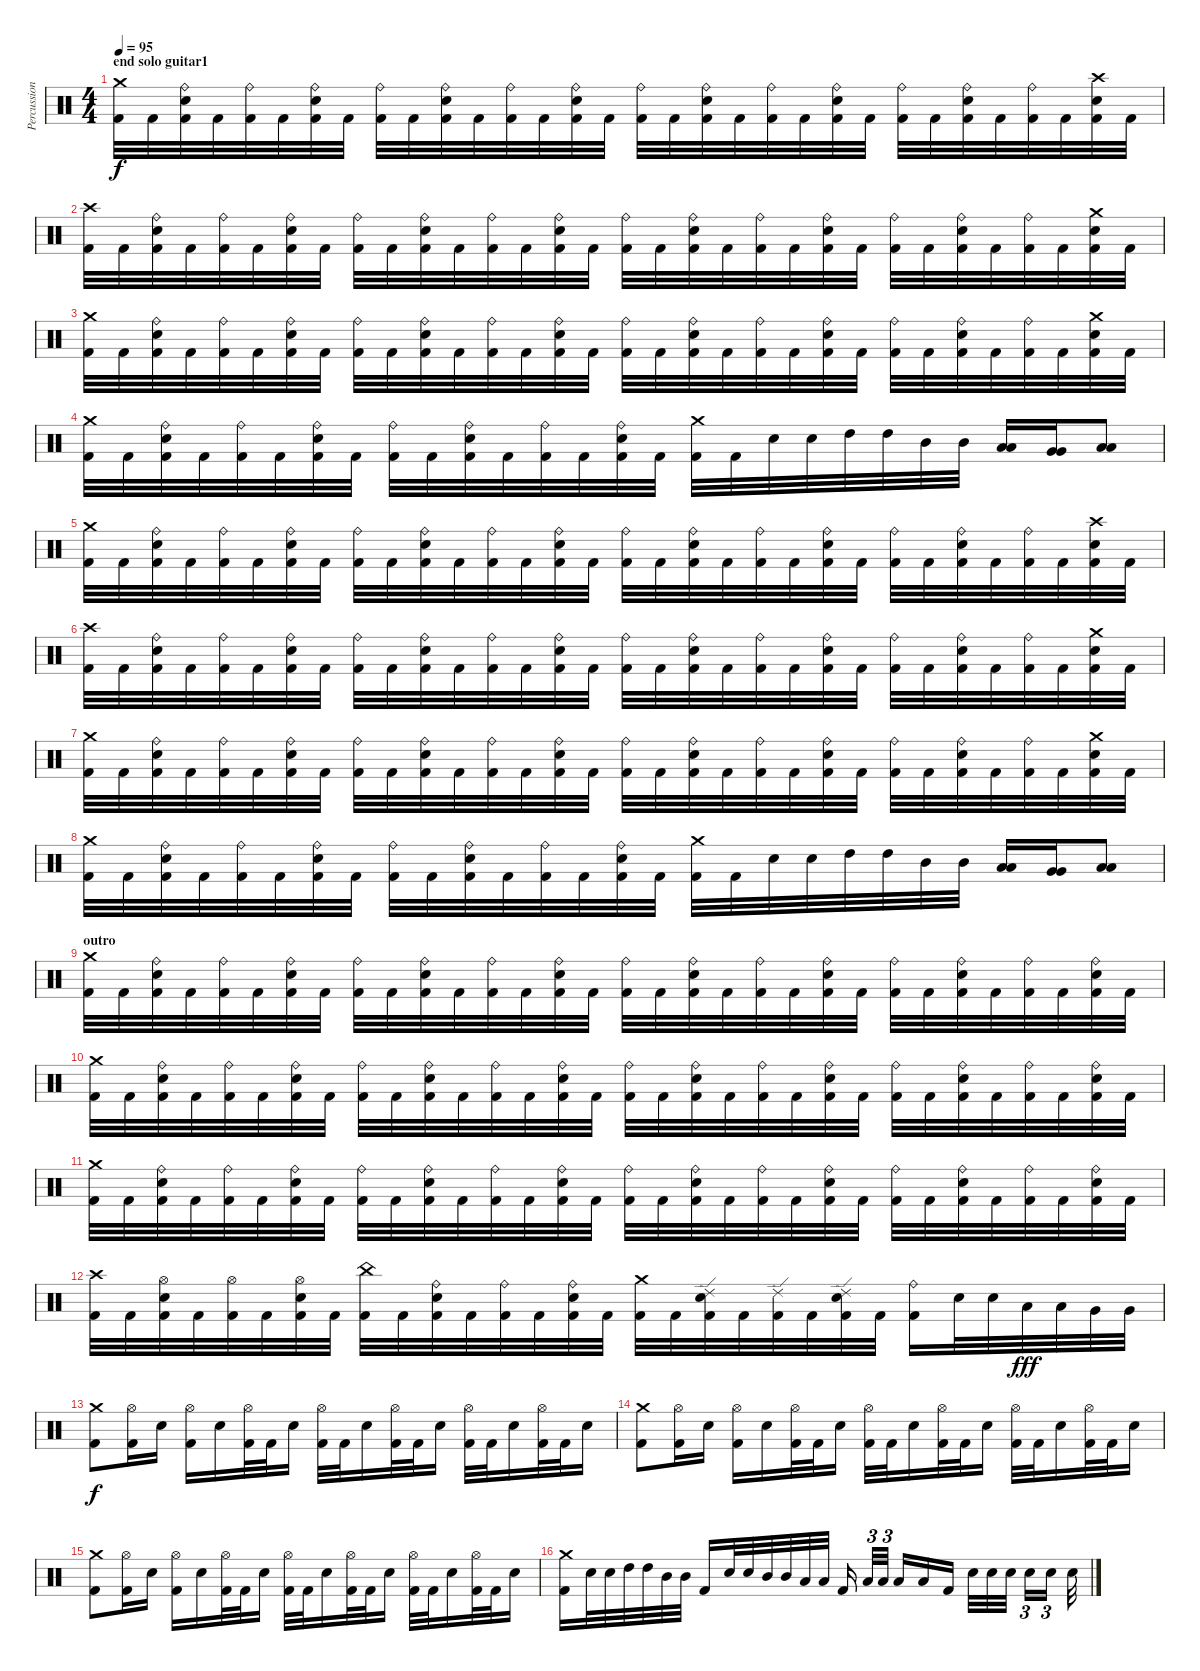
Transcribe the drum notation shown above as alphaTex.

\track ("Percussions" "Percussion") {instrument percussion}
\staff {score}
\articulation defaults
\ts (4 4)
\section ("" "end solo guitar1")
\tempo 95
\clef neutral
\ks c
("Crash medium (hit)" "Kick (hit) 2").32{dy f} "Kick (hit) 2".32 ("Ride (bell)" "Electric Snare (hit)" "Kick (hit) 2").32 "Kick (hit) 2".32 ("Ride (bell)" "Kick (hit) 2").32 "Kick (hit) 2".32 ("Ride (bell)" "Electric Snare (hit)" "Kick (hit) 2").32 "Kick (hit) 2".32 ("Ride (bell)" "Kick (hit) 2").32 "Kick (hit) 2".32 ("Ride (bell)" "Electric Snare (hit)" "Kick (hit) 2").32 "Kick (hit) 2".32 ("Ride (bell)" "Kick (hit) 2").32 "Kick (hit) 2".32 ("Ride (bell)" "Electric Snare (hit)" "Kick (hit) 2").32 "Kick (hit) 2".32 ("Ride (bell)" "Kick (hit) 2").32 "Kick (hit) 2".32 ("Ride (bell)" "Electric Snare (hit)" "Kick (hit) 2").32 "Kick (hit) 2".32 ("Ride (bell)" "Kick (hit) 2").32 "Kick (hit) 2".32 ("Ride (bell)" "Electric Snare (hit)" "Kick (hit) 2").32 "Kick (hit) 2".32 ("Ride (bell)" "Kick (hit) 2").32 "Kick (hit) 2".32 ("Ride (bell)" "Electric Snare (hit)" "Kick (hit) 2").32 "Kick (hit) 2".32 ("Ride (bell)" "Kick (hit) 2").32 "Kick (hit) 2".32 ("Crash high (hit)" "Electric Snare (hit)" "Kick (hit) 2").32 "Kick (hit) 2".32 |
("Crash high (hit)" "Kick (hit) 2").32 "Kick (hit) 2".32 ("Ride (bell)" "Electric Snare (hit)" "Kick (hit) 2").32 "Kick (hit) 2".32 ("Ride (bell)" "Kick (hit) 2").32 "Kick (hit) 2".32 ("Ride (bell)" "Electric Snare (hit)" "Kick (hit) 2").32 "Kick (hit) 2".32 ("Ride (bell)" "Kick (hit) 2").32 "Kick (hit) 2".32 ("Ride (bell)" "Electric Snare (hit)" "Kick (hit) 2").32 "Kick (hit) 2".32 ("Ride (bell)" "Kick (hit) 2").32 "Kick (hit) 2".32 ("Ride (bell)" "Electric Snare (hit)" "Kick (hit) 2").32 "Kick (hit) 2".32 ("Ride (bell)" "Kick (hit) 2").32 "Kick (hit) 2".32 ("Ride (bell)" "Electric Snare (hit)" "Kick (hit) 2").32 "Kick (hit) 2".32 ("Ride (bell)" "Kick (hit) 2").32 "Kick (hit) 2".32 ("Ride (bell)" "Electric Snare (hit)" "Kick (hit) 2").32 "Kick (hit) 2".32 ("Ride (bell)" "Kick (hit) 2").32 "Kick (hit) 2".32 ("Ride (bell)" "Electric Snare (hit)" "Kick (hit) 2").32 "Kick (hit) 2".32 ("Ride (bell)" "Kick (hit) 2").32 "Kick (hit) 2".32 ("Crash medium (hit)" "Electric Snare (hit)" "Kick (hit) 2").32 "Kick (hit) 2".32 |
("Crash medium (hit)" "Kick (hit) 2").32 "Kick (hit) 2".32 ("Ride (bell)" "Electric Snare (hit)" "Kick (hit) 2").32 "Kick (hit) 2".32 ("Ride (bell)" "Kick (hit) 2").32 "Kick (hit) 2".32 ("Ride (bell)" "Electric Snare (hit)" "Kick (hit) 2").32 "Kick (hit) 2".32 ("Ride (bell)" "Kick (hit) 2").32 "Kick (hit) 2".32 ("Ride (bell)" "Electric Snare (hit)" "Kick (hit) 2").32 "Kick (hit) 2".32 ("Ride (bell)" "Kick (hit) 2").32 "Kick (hit) 2".32 ("Ride (bell)" "Electric Snare (hit)" "Kick (hit) 2").32 "Kick (hit) 2".32 ("Ride (bell)" "Kick (hit) 2").32 "Kick (hit) 2".32 ("Ride (bell)" "Electric Snare (hit)" "Kick (hit) 2").32 "Kick (hit) 2".32 ("Ride (bell)" "Kick (hit) 2").32 "Kick (hit) 2".32 ("Ride (bell)" "Electric Snare (hit)" "Kick (hit) 2").32 "Kick (hit) 2".32 ("Ride (bell)" "Kick (hit) 2").32 "Kick (hit) 2".32 ("Ride (bell)" "Electric Snare (hit)" "Kick (hit) 2").32 "Kick (hit) 2".32 ("Ride (bell)" "Kick (hit) 2").32 "Kick (hit) 2".32 ("Crash medium (hit)" "Electric Snare (hit)" "Kick (hit) 2").32 "Kick (hit) 2".32 |
("Crash medium (hit)" "Kick (hit) 2").32 "Kick (hit) 2".32 ("Ride (bell)" "Electric Snare (hit)" "Kick (hit) 2").32 "Kick (hit) 2".32 ("Ride (bell)" "Kick (hit) 2").32 "Kick (hit) 2".32 ("Ride (bell)" "Electric Snare (hit)" "Kick (hit) 2").32 "Kick (hit) 2".32 ("Ride (bell)" "Kick (hit) 2").32 "Kick (hit) 2".32 ("Ride (bell)" "Electric Snare (hit)" "Kick (hit) 2").32 "Kick (hit) 2".32 ("Ride (bell)" "Kick (hit) 2").32 "Kick (hit) 2".32 ("Ride (bell)" "Electric Snare (hit)" "Kick (hit) 2").32 "Kick (hit) 2".32 ("Crash medium (hit)" "Kick (hit) 2").32 "Kick (hit) 2".32 "Electric Snare (hit)".32 "Electric Snare (hit)".32 "High Tom (hit)".32 "High Tom (hit)".32 "Mid Tom (hit)".32 "Mid Tom (hit)".32 ("Low Tom (hit)" "Low Tom (hit)").16 ("Very Low Tom (hit)" "Very Low Tom (hit)").16 ("Low Tom (hit)" "Low Tom (hit)").8 |
("Crash medium (hit)" "Kick (hit) 2").32 "Kick (hit) 2".32 ("Ride (bell)" "Electric Snare (hit)" "Kick (hit) 2").32 "Kick (hit) 2".32 ("Ride (bell)" "Kick (hit) 2").32 "Kick (hit) 2".32 ("Ride (bell)" "Electric Snare (hit)" "Kick (hit) 2").32 "Kick (hit) 2".32 ("Ride (bell)" "Kick (hit) 2").32 "Kick (hit) 2".32 ("Ride (bell)" "Electric Snare (hit)" "Kick (hit) 2").32 "Kick (hit) 2".32 ("Ride (bell)" "Kick (hit) 2").32 "Kick (hit) 2".32 ("Ride (bell)" "Electric Snare (hit)" "Kick (hit) 2").32 "Kick (hit) 2".32 ("Ride (bell)" "Kick (hit) 2").32 "Kick (hit) 2".32 ("Ride (bell)" "Electric Snare (hit)" "Kick (hit) 2").32 "Kick (hit) 2".32 ("Ride (bell)" "Kick (hit) 2").32 "Kick (hit) 2".32 ("Ride (bell)" "Electric Snare (hit)" "Kick (hit) 2").32 "Kick (hit) 2".32 ("Ride (bell)" "Kick (hit) 2").32 "Kick (hit) 2".32 ("Ride (bell)" "Electric Snare (hit)" "Kick (hit) 2").32 "Kick (hit) 2".32 ("Ride (bell)" "Kick (hit) 2").32 "Kick (hit) 2".32 ("Crash high (hit)" "Electric Snare (hit)" "Kick (hit) 2").32 "Kick (hit) 2".32 |
("Crash high (hit)" "Kick (hit) 2").32 "Kick (hit) 2".32 ("Ride (bell)" "Electric Snare (hit)" "Kick (hit) 2").32 "Kick (hit) 2".32 ("Ride (bell)" "Kick (hit) 2").32 "Kick (hit) 2".32 ("Ride (bell)" "Electric Snare (hit)" "Kick (hit) 2").32 "Kick (hit) 2".32 ("Ride (bell)" "Kick (hit) 2").32 "Kick (hit) 2".32 ("Ride (bell)" "Electric Snare (hit)" "Kick (hit) 2").32 "Kick (hit) 2".32 ("Ride (bell)" "Kick (hit) 2").32 "Kick (hit) 2".32 ("Ride (bell)" "Electric Snare (hit)" "Kick (hit) 2").32 "Kick (hit) 2".32 ("Ride (bell)" "Kick (hit) 2").32 "Kick (hit) 2".32 ("Ride (bell)" "Electric Snare (hit)" "Kick (hit) 2").32 "Kick (hit) 2".32 ("Ride (bell)" "Kick (hit) 2").32 "Kick (hit) 2".32 ("Ride (bell)" "Electric Snare (hit)" "Kick (hit) 2").32 "Kick (hit) 2".32 ("Ride (bell)" "Kick (hit) 2").32 "Kick (hit) 2".32 ("Ride (bell)" "Electric Snare (hit)" "Kick (hit) 2").32 "Kick (hit) 2".32 ("Ride (bell)" "Kick (hit) 2").32 "Kick (hit) 2".32 ("Crash medium (hit)" "Electric Snare (hit)" "Kick (hit) 2").32 "Kick (hit) 2".32 |
("Crash medium (hit)" "Kick (hit) 2").32 "Kick (hit) 2".32 ("Ride (bell)" "Electric Snare (hit)" "Kick (hit) 2").32 "Kick (hit) 2".32 ("Ride (bell)" "Kick (hit) 2").32 "Kick (hit) 2".32 ("Ride (bell)" "Electric Snare (hit)" "Kick (hit) 2").32 "Kick (hit) 2".32 ("Ride (bell)" "Kick (hit) 2").32 "Kick (hit) 2".32 ("Ride (bell)" "Electric Snare (hit)" "Kick (hit) 2").32 "Kick (hit) 2".32 ("Ride (bell)" "Kick (hit) 2").32 "Kick (hit) 2".32 ("Ride (bell)" "Electric Snare (hit)" "Kick (hit) 2").32 "Kick (hit) 2".32 ("Ride (bell)" "Kick (hit) 2").32 "Kick (hit) 2".32 ("Ride (bell)" "Electric Snare (hit)" "Kick (hit) 2").32 "Kick (hit) 2".32 ("Ride (bell)" "Kick (hit) 2").32 "Kick (hit) 2".32 ("Ride (bell)" "Electric Snare (hit)" "Kick (hit) 2").32 "Kick (hit) 2".32 ("Ride (bell)" "Kick (hit) 2").32 "Kick (hit) 2".32 ("Ride (bell)" "Electric Snare (hit)" "Kick (hit) 2").32 "Kick (hit) 2".32 ("Ride (bell)" "Kick (hit) 2").32 "Kick (hit) 2".32 ("Crash medium (hit)" "Electric Snare (hit)" "Kick (hit) 2").32 "Kick (hit) 2".32 |
("Crash medium (hit)" "Kick (hit) 2").32 "Kick (hit) 2".32 ("Ride (bell)" "Electric Snare (hit)" "Kick (hit) 2").32 "Kick (hit) 2".32 ("Ride (bell)" "Kick (hit) 2").32 "Kick (hit) 2".32 ("Ride (bell)" "Electric Snare (hit)" "Kick (hit) 2").32 "Kick (hit) 2".32 ("Ride (bell)" "Kick (hit) 2").32 "Kick (hit) 2".32 ("Ride (bell)" "Electric Snare (hit)" "Kick (hit) 2").32 "Kick (hit) 2".32 ("Ride (bell)" "Kick (hit) 2").32 "Kick (hit) 2".32 ("Ride (bell)" "Electric Snare (hit)" "Kick (hit) 2").32 "Kick (hit) 2".32 ("Crash medium (hit)" "Kick (hit) 2").32 "Kick (hit) 2".32 "Electric Snare (hit)".32 "Electric Snare (hit)".32 "High Tom (hit)".32 "High Tom (hit)".32 "Mid Tom (hit)".32 "Mid Tom (hit)".32 ("Low Tom (hit)" "Low Tom (hit)").16 ("Very Low Tom (hit)" "Very Low Tom (hit)").16 ("Low Tom (hit)" "Low Tom (hit)").8 |
\section ("" "outro")
("Crash medium (hit)" "Kick (hit) 2").32 "Kick (hit) 2".32 ("Ride (bell)" "Electric Snare (hit)" "Kick (hit) 2").32 "Kick (hit) 2".32 ("Ride (bell)" "Kick (hit) 2").32 "Kick (hit) 2".32 ("Ride (bell)" "Electric Snare (hit)" "Kick (hit) 2").32 "Kick (hit) 2".32 ("Ride (bell)" "Kick (hit) 2").32 "Kick (hit) 2".32 ("Ride (bell)" "Electric Snare (hit)" "Kick (hit) 2").32 "Kick (hit) 2".32 ("Ride (bell)" "Kick (hit) 2").32 "Kick (hit) 2".32 ("Ride (bell)" "Electric Snare (hit)" "Kick (hit) 2").32 "Kick (hit) 2".32 ("Ride (bell)" "Kick (hit) 2").32 "Kick (hit) 2".32 ("Ride (bell)" "Electric Snare (hit)" "Kick (hit) 2").32 "Kick (hit) 2".32 ("Ride (bell)" "Kick (hit) 2").32 "Kick (hit) 2".32 ("Ride (bell)" "Electric Snare (hit)" "Kick (hit) 2").32 "Kick (hit) 2".32 ("Ride (bell)" "Kick (hit) 2").32 "Kick (hit) 2".32 ("Ride (bell)" "Electric Snare (hit)" "Kick (hit) 2").32 "Kick (hit) 2".32 ("Ride (bell)" "Kick (hit) 2").32 "Kick (hit) 2".32 ("Ride (bell)" "Electric Snare (hit)" "Kick (hit) 2").32 "Kick (hit) 2".32 |
("Crash medium (hit)" "Kick (hit) 2").32 "Kick (hit) 2".32 ("Ride (bell)" "Electric Snare (hit)" "Kick (hit) 2").32 "Kick (hit) 2".32 ("Ride (bell)" "Kick (hit) 2").32 "Kick (hit) 2".32 ("Ride (bell)" "Electric Snare (hit)" "Kick (hit) 2").32 "Kick (hit) 2".32 ("Ride (bell)" "Kick (hit) 2").32 "Kick (hit) 2".32 ("Ride (bell)" "Electric Snare (hit)" "Kick (hit) 2").32 "Kick (hit) 2".32 ("Ride (bell)" "Kick (hit) 2").32 "Kick (hit) 2".32 ("Ride (bell)" "Electric Snare (hit)" "Kick (hit) 2").32 "Kick (hit) 2".32 ("Ride (bell)" "Kick (hit) 2").32 "Kick (hit) 2".32 ("Ride (bell)" "Electric Snare (hit)" "Kick (hit) 2").32 "Kick (hit) 2".32 ("Ride (bell)" "Kick (hit) 2").32 "Kick (hit) 2".32 ("Ride (bell)" "Electric Snare (hit)" "Kick (hit) 2").32 "Kick (hit) 2".32 ("Ride (bell)" "Kick (hit) 2").32 "Kick (hit) 2".32 ("Ride (bell)" "Electric Snare (hit)" "Kick (hit) 2").32 "Kick (hit) 2".32 ("Ride (bell)" "Kick (hit) 2").32 "Kick (hit) 2".32 ("Ride (bell)" "Electric Snare (hit)" "Kick (hit) 2").32 "Kick (hit) 2".32 |
("Crash medium (hit)" "Kick (hit) 2").32 "Kick (hit) 2".32 ("Ride (bell)" "Electric Snare (hit)" "Kick (hit) 2").32 "Kick (hit) 2".32 ("Ride (bell)" "Kick (hit) 2").32 "Kick (hit) 2".32 ("Ride (bell)" "Electric Snare (hit)" "Kick (hit) 2").32 "Kick (hit) 2".32 ("Ride (bell)" "Kick (hit) 2").32 "Kick (hit) 2".32 ("Ride (bell)" "Electric Snare (hit)" "Kick (hit) 2").32 "Kick (hit) 2".32 ("Ride (bell)" "Kick (hit) 2").32 "Kick (hit) 2".32 ("Ride (bell)" "Electric Snare (hit)" "Kick (hit) 2").32 "Kick (hit) 2".32 ("Ride (bell)" "Kick (hit) 2").32 "Kick (hit) 2".32 ("Ride (bell)" "Electric Snare (hit)" "Kick (hit) 2").32 "Kick (hit) 2".32 ("Ride (bell)" "Kick (hit) 2").32 "Kick (hit) 2".32 ("Ride (bell)" "Electric Snare (hit)" "Kick (hit) 2").32 "Kick (hit) 2".32 ("Ride (bell)" "Kick (hit) 2").32 "Kick (hit) 2".32 ("Ride (bell)" "Electric Snare (hit)" "Kick (hit) 2").32 "Kick (hit) 2".32 ("Ride (bell)" "Kick (hit) 2").32 "Kick (hit) 2".32 ("Ride (bell)" "Electric Snare (hit)" "Kick (hit) 2").32 "Kick (hit) 2".32 |
("Crash high (hit)" "Kick (hit) 2").32 "Kick (hit) 2".32 ("Hi-Hat (open)" "Electric Snare (hit)" "Kick (hit) 2").32 "Kick (hit) 2".32 ("Hi-Hat (open)" "Kick (hit) 2").32 "Kick (hit) 2".32 ("Hi-Hat (open)" "Electric Snare (hit)" "Kick (hit) 2").32 "Kick (hit) 2".32 ("China (hit)" "Kick (hit) 2").32 "Kick (hit) 2".32 ("Ride (bell)" "Electric Snare (hit)" "Kick (hit) 2").32 "Kick (hit) 2".32 ("Ride (bell)" "Kick (hit) 2").32 "Kick (hit) 2".32 ("Ride (bell)" "Electric Snare (hit)" "Kick (hit) 2").32 "Kick (hit) 2".32 ("Crash medium (hit)" "Kick (hit) 2").32 "Kick (hit) 2".32 ("Ride (edge) 2" "Electric Snare (hit)" "Kick (hit) 2").32 "Kick (hit) 2".32 ("Ride (edge) 2" "Kick (hit) 2").32 "Kick (hit) 2".32 ("Ride (edge) 2" "Electric Snare (hit)" "Kick (hit) 2").32 "Kick (hit) 2".32 ("Ride (bell)" "Kick (hit) 2").16 "Electric Snare (hit)".32 "Electric Snare (hit)".32 "Low Tom (hit)".32{dy fff} "Low Tom (hit)".32 "Very Low Tom (hit)".32 "Very Low Tom (hit)".32 |
("Crash medium (hit)" "Kick (hit) 2").8{dy f} ("Hi-Hat (open)" "Kick (hit) 2").16 "Electric Snare (hit)".16 ("Hi-Hat (open)" "Kick (hit) 2").16 "Electric Snare (hit)".16 ("Hi-Hat (open)" "Kick (hit) 2").32 "Kick (hit) 2".32 "Electric Snare (hit)".16 ("Hi-Hat (open)" "Kick (hit) 2").32 "Kick (hit) 2".32 "Electric Snare (hit)".16 ("Hi-Hat (open)" "Kick (hit) 2").32 "Kick (hit) 2".32 "Electric Snare (hit)".16 ("Hi-Hat (open)" "Kick (hit) 2").32 "Kick (hit) 2".32 "Electric Snare (hit)".16 ("Hi-Hat (open)" "Kick (hit) 2").32 "Kick (hit) 2".32 "Electric Snare (hit)".16 |
("Crash medium (hit)" "Kick (hit) 2").8 ("Hi-Hat (open)" "Kick (hit) 2").16 "Electric Snare (hit)".16 ("Hi-Hat (open)" "Kick (hit) 2").16 "Electric Snare (hit)".16 ("Hi-Hat (open)" "Kick (hit) 2").32 "Kick (hit) 2".32 "Electric Snare (hit)".16 ("Hi-Hat (open)" "Kick (hit) 2").32 "Kick (hit) 2".32 "Electric Snare (hit)".16 ("Hi-Hat (open)" "Kick (hit) 2").32 "Kick (hit) 2".32 "Electric Snare (hit)".16 ("Hi-Hat (open)" "Kick (hit) 2").32 "Kick (hit) 2".32 "Electric Snare (hit)".16 ("Hi-Hat (open)" "Kick (hit) 2").32 "Kick (hit) 2".32 "Electric Snare (hit)".16 |
("Crash medium (hit)" "Kick (hit) 2").8 ("Hi-Hat (open)" "Kick (hit) 2").16 "Electric Snare (hit)".16 ("Hi-Hat (open)" "Kick (hit) 2").16 "Electric Snare (hit)".16 ("Hi-Hat (open)" "Kick (hit) 2").32 "Kick (hit) 2".32 "Electric Snare (hit)".16 ("Hi-Hat (open)" "Kick (hit) 2").32 "Kick (hit) 2".32 "Electric Snare (hit)".16 ("Hi-Hat (open)" "Kick (hit) 2").32 "Kick (hit) 2".32 "Electric Snare (hit)".16 ("Hi-Hat (open)" "Kick (hit) 2").32 "Kick (hit) 2".32 "Electric Snare (hit)".16 ("Hi-Hat (open)" "Kick (hit) 2").32 "Kick (hit) 2".32 "Electric Snare (hit)".16 |
("Crash medium (hit)" "Kick (hit) 2").16 "Electric Snare (hit)".32 "Electric Snare (hit)".32 "High Tom (hit)".32 "High Tom (hit)".32 "Mid Tom (hit)".32 "Mid Tom (hit)".32 "Kick (hit) 2".16 "Electric Snare (hit)".32 "Electric Snare (hit)".32 "Mid Tom (hit)".32 "Mid Tom (hit)".32 "Low Tom (hit)".32 "Low Tom (hit)".32 "Kick (hit) 2".16 "Low Tom (hit)".32{tu (3 2)} "Low Tom (hit)".32{tu (3 2)} "Low Tom (hit)".16 "Low Tom (hit)".16 "Kick (hit) 2".16 "Electric Snare (hit)".32 "Electric Snare (hit)".32 "Electric Snare (hit)".32 "Electric Snare (hit)".16{tu (3 2)} "Electric Snare (hit)".16{tu (3 2)} "Electric Snare (hit)".32
